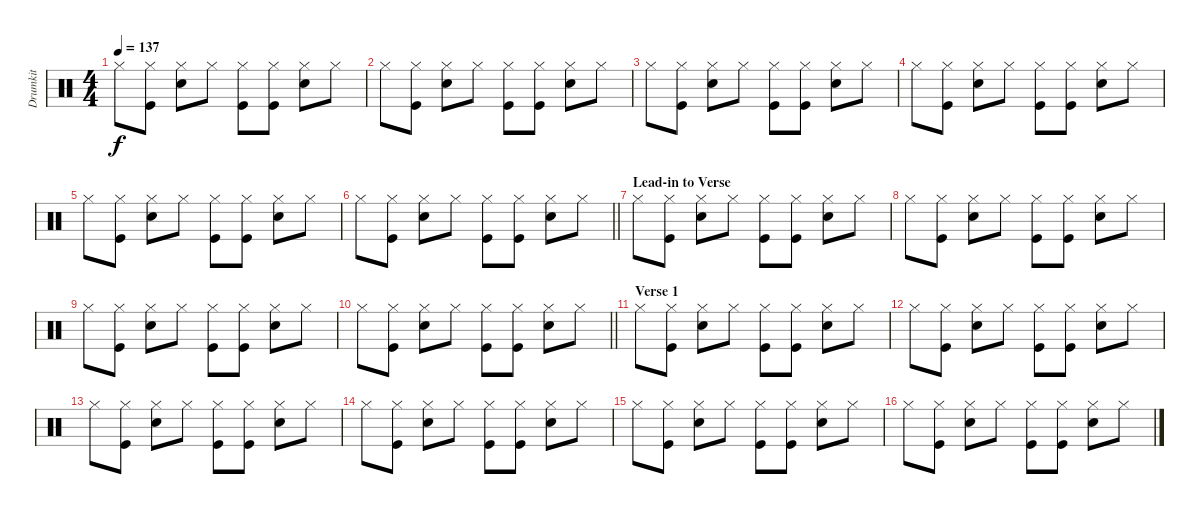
\track ("Drumkit" "Drumkit") {instrument percussion}
\staff {score}
\articulation defaults
\ts (4 4)
\tempo 137
\clef neutral
\ks c "Hi-Hat (closed)".8{dy f}
("Hi-Hat (closed)" "Kick (hit)").8 ("Hi-Hat (closed)" "Snare (hit) 2").8 "Hi-Hat (closed)".8 ("Hi-Hat (closed)" "Kick (hit)").8 ("Hi-Hat (closed)" "Kick (hit)").8 ("Hi-Hat (closed)" "Snare (hit) 2").8 "Hi-Hat (closed)".8 |
"Hi-Hat (closed)".8 ("Hi-Hat (closed)" "Kick (hit)").8 ("Hi-Hat (closed)" "Snare (hit) 2").8 "Hi-Hat (closed)".8 ("Hi-Hat (closed)" "Kick (hit)").8 ("Hi-Hat (closed)" "Kick (hit)").8 ("Hi-Hat (closed)" "Snare (hit) 2").8 "Hi-Hat (closed)".8 |
"Hi-Hat (closed)".8 ("Hi-Hat (closed)" "Kick (hit)").8 ("Hi-Hat (closed)" "Snare (hit) 2").8 "Hi-Hat (closed)".8 ("Hi-Hat (closed)" "Kick (hit)").8 ("Hi-Hat (closed)" "Kick (hit)").8 ("Hi-Hat (closed)" "Snare (hit) 2").8 "Hi-Hat (closed)".8 |
"Hi-Hat (closed)".8 ("Hi-Hat (closed)" "Kick (hit)").8 ("Hi-Hat (closed)" "Snare (hit) 2").8 "Hi-Hat (closed)".8 ("Hi-Hat (closed)" "Kick (hit)").8 ("Hi-Hat (closed)" "Kick (hit)").8 ("Hi-Hat (closed)" "Snare (hit) 2").8 "Hi-Hat (closed)".8 |
"Hi-Hat (closed)".8 ("Hi-Hat (closed)" "Kick (hit)").8 ("Hi-Hat (closed)" "Snare (hit) 2").8 "Hi-Hat (closed)".8 ("Hi-Hat (closed)" "Kick (hit)").8 ("Hi-Hat (closed)" "Kick (hit)").8 ("Hi-Hat (closed)" "Snare (hit) 2").8 "Hi-Hat (closed)".8 |
\barLineRight lightlight "Hi-Hat (closed)".8
("Hi-Hat (closed)" "Kick (hit)").8 ("Hi-Hat (closed)" "Snare (hit) 2").8 "Hi-Hat (closed)".8 ("Hi-Hat (closed)" "Kick (hit)").8 ("Hi-Hat (closed)" "Kick (hit)").8 ("Hi-Hat (closed)" "Snare (hit) 2").8 "Hi-Hat (closed)".8 |
\section ("" "Lead-in to Verse")
"Hi-Hat (closed)".8 ("Hi-Hat (closed)" "Kick (hit)").8 ("Hi-Hat (closed)" "Snare (hit) 2").8 "Hi-Hat (closed)".8 ("Hi-Hat (closed)" "Kick (hit)").8 ("Hi-Hat (closed)" "Kick (hit)").8 ("Hi-Hat (closed)" "Snare (hit) 2").8 "Hi-Hat (closed)".8 |
"Hi-Hat (closed)".8 ("Hi-Hat (closed)" "Kick (hit)").8 ("Hi-Hat (closed)" "Snare (hit) 2").8 "Hi-Hat (closed)".8 ("Hi-Hat (closed)" "Kick (hit)").8 ("Hi-Hat (closed)" "Kick (hit)").8 ("Hi-Hat (closed)" "Snare (hit) 2").8 "Hi-Hat (closed)".8 |
"Hi-Hat (closed)".8 ("Hi-Hat (closed)" "Kick (hit)").8 ("Hi-Hat (closed)" "Snare (hit) 2").8 "Hi-Hat (closed)".8 ("Hi-Hat (closed)" "Kick (hit)").8 ("Hi-Hat (closed)" "Kick (hit)").8 ("Hi-Hat (closed)" "Snare (hit) 2").8 "Hi-Hat (closed)".8 |
\barLineRight lightlight "Hi-Hat (closed)".8
("Hi-Hat (closed)" "Kick (hit)").8 ("Hi-Hat (closed)" "Snare (hit) 2").8 "Hi-Hat (closed)".8 ("Hi-Hat (closed)" "Kick (hit)").8 ("Hi-Hat (closed)" "Kick (hit)").8 ("Hi-Hat (closed)" "Snare (hit) 2").8 "Hi-Hat (closed)".8 |
\section ("" "Verse 1")
"Hi-Hat (closed)".8 ("Hi-Hat (closed)" "Kick (hit)").8 ("Hi-Hat (closed)" "Snare (hit) 2").8 "Hi-Hat (closed)".8 ("Hi-Hat (closed)" "Kick (hit)").8 ("Hi-Hat (closed)" "Kick (hit)").8 ("Hi-Hat (closed)" "Snare (hit) 2").8 "Hi-Hat (closed)".8 |
"Hi-Hat (closed)".8 ("Hi-Hat (closed)" "Kick (hit)").8 ("Hi-Hat (closed)" "Snare (hit) 2").8 "Hi-Hat (closed)".8 ("Hi-Hat (closed)" "Kick (hit)").8 ("Hi-Hat (closed)" "Kick (hit)").8 ("Hi-Hat (closed)" "Snare (hit) 2").8 "Hi-Hat (closed)".8 |
"Hi-Hat (closed)".8 ("Hi-Hat (closed)" "Kick (hit)").8 ("Hi-Hat (closed)" "Snare (hit) 2").8 "Hi-Hat (closed)".8 ("Hi-Hat (closed)" "Kick (hit)").8 ("Hi-Hat (closed)" "Kick (hit)").8 ("Hi-Hat (closed)" "Snare (hit) 2").8 "Hi-Hat (closed)".8 |
"Hi-Hat (closed)".8 ("Hi-Hat (closed)" "Kick (hit)").8 ("Hi-Hat (closed)" "Snare (hit) 2").8 "Hi-Hat (closed)".8 ("Hi-Hat (closed)" "Kick (hit)").8 ("Hi-Hat (closed)" "Kick (hit)").8 ("Hi-Hat (closed)" "Snare (hit) 2").8 "Hi-Hat (closed)".8 |
"Hi-Hat (closed)".8 ("Hi-Hat (closed)" "Kick (hit)").8 ("Hi-Hat (closed)" "Snare (hit) 2").8 "Hi-Hat (closed)".8 ("Hi-Hat (closed)" "Kick (hit)").8 ("Hi-Hat (closed)" "Kick (hit)").8 ("Hi-Hat (closed)" "Snare (hit) 2").8 "Hi-Hat (closed)".8 |
"Hi-Hat (closed)".8 ("Hi-Hat (closed)" "Kick (hit)").8 ("Hi-Hat (closed)" "Snare (hit) 2").8 "Hi-Hat (closed)".8 ("Hi-Hat (closed)" "Kick (hit)").8 ("Hi-Hat (closed)" "Kick (hit)").8 ("Hi-Hat (closed)" "Snare (hit) 2").8 "Hi-Hat (closed)".8
